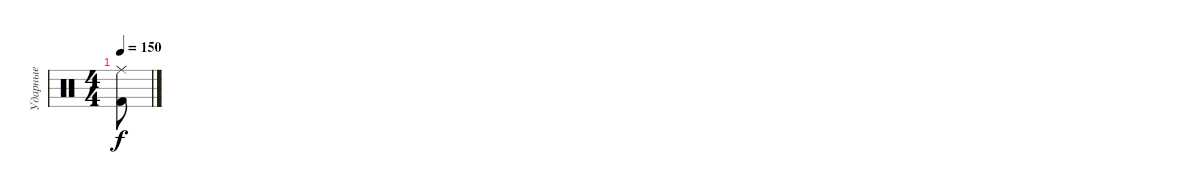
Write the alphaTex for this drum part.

\track ("Ударные" "Ударные") {instrument percussion}
\staff {score}
\articulation defaults
\ts (4 4)
\tempo 150
\clef neutral
\ks c
("Ride (middle)" "Kick (hit) 2").8{dy f}
